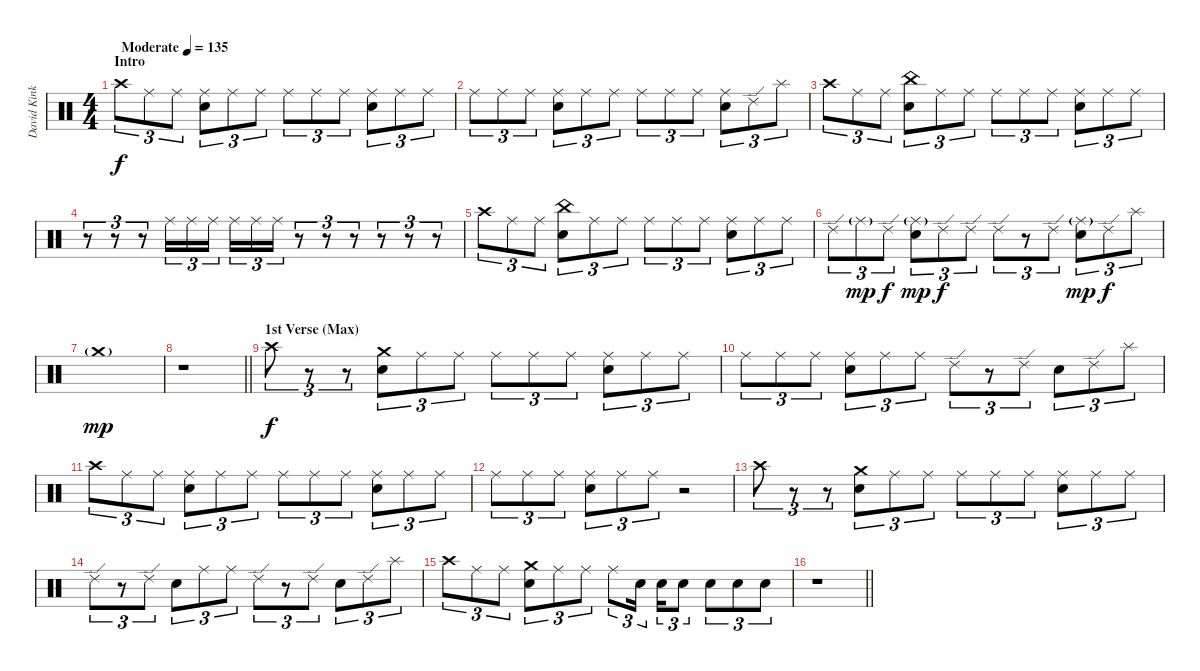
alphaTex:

\track ("David Kinkade" "David Kink") {instrument percussion}
\staff {score}
\articulation defaults
\ts (4 4)
\section ("" "Intro")
\tempo (135 "Moderate")
\clef neutral
\ks c "Crash high (hit)".8{tu (3 2) dy f} "Ride (middle)".8{tu (3 2)} "Ride (middle)".8{tu (3 2)}
("Ride (middle)" "Snare (hit) 2").8{tu (3 2)} "Ride (middle)".8{tu (3 2)} "Ride (middle)".8{tu (3 2)} "Ride (middle)".8{tu (3 2)} "Ride (middle)".8{tu (3 2)} "Ride (middle)".8{tu (3 2)} ("Ride (middle)" "Snare (hit) 2").8{tu (3 2)} "Ride (middle)".8{tu (3 2)} "Ride (middle)".8{tu (3 2)} |
"Ride (middle)".8{tu (3 2)} "Ride (middle)".8{tu (3 2)} "Ride (middle)".8{tu (3 2)} ("Ride (middle)" "Snare (hit) 2").8{tu (3 2)} "Ride (middle)".8{tu (3 2)} "Ride (middle)".8{tu (3 2)} "Ride (middle)".8{tu (3 2)} "Ride (middle)".8{tu (3 2)} "Ride (middle)".8{tu (3 2)} ("Ride (middle)" "Snare (hit) 2").8{tu (3 2)} "Ride (edge) 2".8{tu (3 2)} "Splash (hit)".8{tu (3 2)} |
"Crash high (hit)".8{tu (3 2)} "Ride (middle)".8{tu (3 2)} "Ride (middle)".8{tu (3 2)} ("China (hit)" "Snare (hit) 2").8{tu (3 2)} "Ride (middle)".8{tu (3 2)} "Ride (middle)".8{tu (3 2)} "Ride (middle)".8{tu (3 2)} "Ride (middle)".8{tu (3 2)} "Ride (middle)".8{tu (3 2)} ("Ride (middle)" "Snare (hit) 2").8{tu (3 2)} "Ride (middle)".8{tu (3 2)} "Ride (middle)".8{tu (3 2)} |
r.8{tu (3 2)} r.8{tu (3 2)} r.8{tu (3 2)} "Ride (middle)".16{tu (3 2)} "Ride (middle)".16{tu (3 2)} "Ride (middle)".16{tu (3 2) beam splitsecondary} "Ride (middle)".16{tu (3 2)} "Ride (middle)".16{tu (3 2)} "Ride (middle)".16{tu (3 2)} r.8{tu (3 2)} r.8{tu (3 2)} r.8{tu (3 2)} r.8{tu (3 2)} r.8{tu (3 2)} r.8{tu (3 2)} |
"Crash high (hit)".8{tu (3 2)} "Ride (middle)".8{tu (3 2)} "Ride (middle)".8{tu (3 2)} ("China (hit)" "Snare (hit) 2").8{tu (3 2)} "Ride (middle)".8{tu (3 2)} "Ride (middle)".8{tu (3 2)} "Ride (middle)".8{tu (3 2)} "Ride (middle)".8{tu (3 2)} "Ride (middle)".8{tu (3 2)} ("Ride (middle)" "Snare (hit) 2").8{tu (3 2)} "Ride (middle)".8{tu (3 2)} "Ride (middle)".8{tu (3 2)} |
"Ride (edge) 2".8{tu (3 2)} "Ride (middle)"{g}.8{tu (3 2) dy mp} "Ride (edge) 2".8{tu (3 2) dy f} ("Ride (middle)"{g} "Snare (hit) 2").8{tu (3 2) dy mp} "Ride (edge) 2".8{tu (3 2) dy f} "Ride (edge) 2".8{tu (3 2)} "Ride (edge) 2".8{tu (3 2)} r.8{tu (3 2)} "Ride (edge) 2".8{tu (3 2)} ("Ride (middle)"{g} "Snare (hit) 2").8{tu (3 2) dy mp} "Ride (edge) 2".8{tu (3 2) dy f} "Splash (hit)".8{tu (3 2)} |
"Crash medium (hit)"{g}.1{dy mp} |
\barLineRight lightlight
r.1 |
\section ("" "1st Verse (Max)")
"Crash high (hit)".8{tu (3 2) dy f} r.8{tu (3 2)} r.8{tu (3 2)} ("Crash medium (hit)" "Snare (hit) 2").8{tu (3 2)} "Ride (middle)".8{tu (3 2)} "Ride (middle)".8{tu (3 2)} "Ride (middle)".8{tu (3 2)} "Ride (middle)".8{tu (3 2)} "Ride (middle)".8{tu (3 2)} ("Ride (middle)" "Snare (hit) 2").8{tu (3 2)} "Ride (middle)".8{tu (3 2)} "Ride (middle)".8{tu (3 2)} |
"Ride (middle)".8{tu (3 2)} "Ride (middle)".8{tu (3 2)} "Ride (middle)".8{tu (3 2)} ("Ride (middle)" "Snare (hit) 2").8{tu (3 2)} "Ride (middle)".8{tu (3 2)} "Ride (middle)".8{tu (3 2)} "Ride (edge) 2".8{tu (3 2)} r.8{tu (3 2)} "Ride (edge) 2".8{tu (3 2)} "Snare (hit) 2".8{tu (3 2)} "Ride (edge) 2".8{tu (3 2)} "Splash (hit)".8{tu (3 2)} |
"Crash high (hit)".8{tu (3 2)} "Ride (middle)".8{tu (3 2)} "Ride (middle)".8{tu (3 2)} ("Ride (middle)" "Snare (hit) 2").8{tu (3 2)} "Ride (middle)".8{tu (3 2)} "Ride (middle)".8{tu (3 2)} "Ride (middle)".8{tu (3 2)} "Ride (middle)".8{tu (3 2)} "Ride (middle)".8{tu (3 2)} ("Ride (middle)" "Snare (hit) 2").8{tu (3 2)} "Ride (middle)".8{tu (3 2)} "Ride (middle)".8{tu (3 2)} |
"Ride (middle)".8{tu (3 2)} "Ride (middle)".8{tu (3 2)} "Ride (middle)".8{tu (3 2)} ("Ride (middle)" "Snare (hit) 2").8{tu (3 2)} "Ride (middle)".8{tu (3 2)} "Ride (middle)".8{tu (3 2)} r.2 |
"Crash high (hit)".8{tu (3 2)} r.8{tu (3 2)} r.8{tu (3 2)} ("Crash medium (hit)" "Snare (hit) 2").8{tu (3 2)} "Ride (middle)".8{tu (3 2)} "Ride (middle)".8{tu (3 2)} "Ride (middle)".8{tu (3 2)} "Ride (middle)".8{tu (3 2)} "Ride (middle)".8{tu (3 2)} ("Ride (middle)" "Snare (hit) 2").8{tu (3 2)} "Ride (middle)".8{tu (3 2)} "Ride (middle)".8{tu (3 2)} |
"Ride (edge) 2".8{tu (3 2)} r.8{tu (3 2)} "Ride (edge) 2".8{tu (3 2)} "Snare (hit) 2".8{tu (3 2)} "Ride (middle)".8{tu (3 2)} "Ride (middle)".8{tu (3 2)} "Ride (edge) 2".8{tu (3 2)} r.8{tu (3 2)} "Ride (edge) 2".8{tu (3 2)} "Snare (hit) 2".8{tu (3 2)} "Ride (edge) 2".8{tu (3 2)} "Splash (hit)".8{tu (3 2)} |
"Crash high (hit)".8{tu (3 2)} "Ride (middle)".8{tu (3 2)} "Ride (middle)".8{tu (3 2)} ("Crash medium (hit)" "Snare (hit) 2").8{tu (3 2)} "Ride (middle)".8{tu (3 2)} "Ride (middle)".8{tu (3 2)} "Ride (middle)".8{tu (3 2)} "Snare (hit) 2".16{tu (3 2) beam splitsecondary} "Snare (hit) 2".16{tu (3 2)} "Snare (hit) 2".8{tu (3 2)} "Snare (hit) 2".8{tu (3 2)} "Snare (hit) 2".8{tu (3 2)} "Snare (hit) 2".8{tu (3 2)} |
\barLineRight lightlight
r.1
